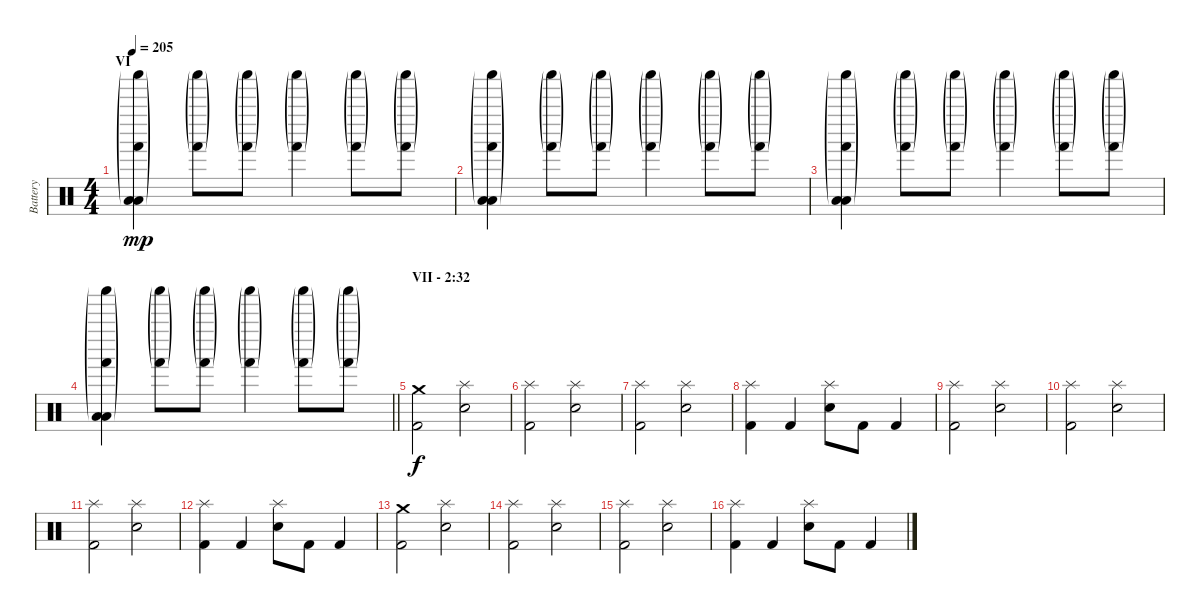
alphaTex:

\track ("Battery" "Battery") {instrument percussion}
\staff {score}
\articulation defaults
\ts (4 4)
\section ("" "VI")
\tempo 205
\clef neutral
\ks c
("Shaker (hit)"{g} "Hand (hit)"{g} "Low Floor Tom (hit)"{g} "Low Floor Tom (hit)"{g}).4{dy mp} ("Shaker (hit)"{g} "Hand (hit)"{g}).8 ("Shaker (hit)"{g} "Hand (hit)"{g}).8 ("Shaker (hit)"{g} "Hand (hit)"{g}).4 ("Shaker (hit)"{g} "Hand (hit)"{g}).8 ("Shaker (hit)"{g} "Hand (hit)"{g}).8 |
("Shaker (hit)"{g} "Hand (hit)"{g} "Low Floor Tom (hit)"{g} "Low Floor Tom (hit)"{g}).4 ("Shaker (hit)"{g} "Hand (hit)"{g}).8 ("Shaker (hit)"{g} "Hand (hit)"{g}).8 ("Shaker (hit)"{g} "Hand (hit)"{g}).4 ("Shaker (hit)"{g} "Hand (hit)"{g}).8 ("Shaker (hit)"{g} "Hand (hit)"{g}).8 |
("Shaker (hit)"{g} "Hand (hit)"{g} "Low Floor Tom (hit)"{g} "Low Floor Tom (hit)"{g}).4 ("Shaker (hit)"{g} "Hand (hit)"{g}).8 ("Shaker (hit)"{g} "Hand (hit)"{g}).8 ("Shaker (hit)"{g} "Hand (hit)"{g}).4 ("Shaker (hit)"{g} "Hand (hit)"{g}).8 ("Shaker (hit)"{g} "Hand (hit)"{g}).8 |
\barLineRight lightlight
("Shaker (hit)"{g} "Hand (hit)"{g} "Low Floor Tom (hit)"{g} "Low Floor Tom (hit)"{g}).4 ("Shaker (hit)"{g} "Hand (hit)"{g}).8 ("Shaker (hit)"{g} "Hand (hit)"{g}).8 ("Shaker (hit)"{g} "Hand (hit)"{g}).4 ("Shaker (hit)"{g} "Hand (hit)"{g}).8 ("Shaker (hit)"{g} "Hand (hit)"{g}).8 |
\section ("" "VII - 2:32")
("Crash medium (hit)" "Kick (hit) 2").2{dy f} ("Splash (hit)" "Electric Snare (hit)").2 |
("Splash (hit)" "Kick (hit) 2").2 ("Splash (hit)" "Electric Snare (hit)").2 |
("Splash (hit)" "Kick (hit) 2").2 ("Splash (hit)" "Electric Snare (hit)").2 |
("Splash (hit)" "Kick (hit) 2").4 "Kick (hit) 2".4 ("Splash (hit)" "Electric Snare (hit)").8 "Kick (hit) 2".8 "Kick (hit) 2".4 |
("Splash (hit)" "Kick (hit) 2").2 ("Splash (hit)" "Electric Snare (hit)").2 |
("Splash (hit)" "Kick (hit) 2").2 ("Splash (hit)" "Electric Snare (hit)").2 |
("Splash (hit)" "Kick (hit) 2").2 ("Splash (hit)" "Electric Snare (hit)").2 |
("Splash (hit)" "Kick (hit) 2").4 "Kick (hit) 2".4 ("Splash (hit)" "Electric Snare (hit)").8 "Kick (hit) 2".8 "Kick (hit) 2".4 |
("Crash medium (hit)" "Kick (hit) 2").2 ("Splash (hit)" "Electric Snare (hit)").2 |
("Splash (hit)" "Kick (hit) 2").2 ("Splash (hit)" "Electric Snare (hit)").2 |
("Splash (hit)" "Kick (hit) 2").2 ("Splash (hit)" "Electric Snare (hit)").2 |
("Splash (hit)" "Kick (hit) 2").4 "Kick (hit) 2".4 ("Splash (hit)" "Electric Snare (hit)").8 "Kick (hit) 2".8 "Kick (hit) 2".4
